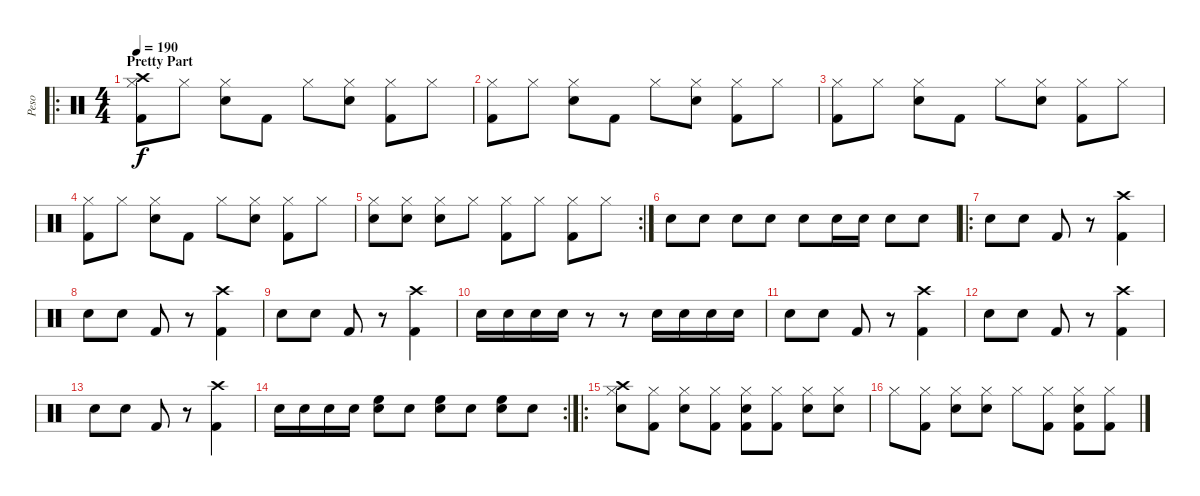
\track ("Peso" "Peso") {instrument percussion}
\staff {score}
\articulation defaults
\ro
\ts (4 4)
\section ("" "Pretty Part")
\tempo 190
\clef neutral
\ks c
("Crash high (hit)" "Hi-Hat (closed)" "Kick (hit) 2").8{dy f} "Hi-Hat (closed)".8 ("Hi-Hat (closed)" "Snare (hit) 2").8 "Kick (hit) 2".8 "Hi-Hat (closed)".8 ("Hi-Hat (closed)" "Snare (hit) 2").8 ("Hi-Hat (closed)" "Kick (hit) 2").8 "Hi-Hat (closed)".8 |
("Hi-Hat (closed)" "Kick (hit) 2").8 "Hi-Hat (closed)".8 ("Hi-Hat (closed)" "Snare (hit) 2").8 "Kick (hit) 2".8 "Hi-Hat (closed)".8 ("Hi-Hat (closed)" "Snare (hit) 2").8 ("Hi-Hat (closed)" "Kick (hit) 2").8 "Hi-Hat (closed)".8 |
("Hi-Hat (closed)" "Kick (hit) 2").8 "Hi-Hat (closed)".8 ("Hi-Hat (closed)" "Snare (hit) 2").8 "Kick (hit) 2".8 "Hi-Hat (closed)".8 ("Hi-Hat (closed)" "Snare (hit) 2").8 ("Hi-Hat (closed)" "Kick (hit) 2").8 "Hi-Hat (closed)".8 |
("Hi-Hat (closed)" "Kick (hit) 2").8 "Hi-Hat (closed)".8 ("Hi-Hat (closed)" "Snare (hit) 2").8 "Kick (hit) 2".8 "Hi-Hat (closed)".8 ("Hi-Hat (closed)" "Snare (hit) 2").8 ("Hi-Hat (closed)" "Kick (hit) 2").8 "Hi-Hat (closed)".8 |
\rc 2
("Hi-Hat (closed)" "Snare (hit) 2").8 ("Hi-Hat (closed)" "Snare (hit) 2").8 ("Hi-Hat (closed)" "Snare (hit) 2").8 "Hi-Hat (closed)".8 ("Hi-Hat (closed)" "Kick (hit) 2").8 "Hi-Hat (closed)".8 ("Hi-Hat (closed)" "Kick (hit) 2").8 "Hi-Hat (closed)".8 |
"Snare (hit) 2".8 "Snare (hit) 2".8 "Snare (hit) 2".8 "Snare (hit) 2".8 "Snare (hit) 2".8 "Snare (hit) 2".16 "Snare (hit) 2".16 "Snare (hit) 2".8 "Snare (hit) 2".8 |
\ro "Snare (hit) 2".8 "Snare (hit) 2".8 "Kick (hit) 2".8
r.8 ("Crash high (hit)" "Kick (hit) 2").4 |
"Snare (hit) 2".8 "Snare (hit) 2".8 "Kick (hit) 2".8 r.8 ("Crash high (hit)" "Kick (hit) 2").4 |
"Snare (hit) 2".8 "Snare (hit) 2".8 "Kick (hit) 2".8 r.8 ("Crash high (hit)" "Kick (hit) 2").4 |
"Snare (hit) 2".16 "Snare (hit) 2".16 "Snare (hit) 2".16 "Snare (hit) 2".16 r.8 r.8 "Snare (hit) 2".16 "Snare (hit) 2".16 "Snare (hit) 2".16 "Snare (hit) 2".16 |
"Snare (hit) 2".8 "Snare (hit) 2".8 "Kick (hit) 2".8 r.8 ("Crash high (hit)" "Kick (hit) 2").4 |
"Snare (hit) 2".8 "Snare (hit) 2".8 "Kick (hit) 2".8 r.8 ("Crash high (hit)" "Kick (hit) 2").4 |
"Snare (hit) 2".8 "Snare (hit) 2".8 "Kick (hit) 2".8 r.8 ("Crash high (hit)" "Kick (hit) 2").4 |
\rc 2 "Snare (hit) 2".16 "Snare (hit) 2".16 "Snare (hit) 2".16 "Snare (hit) 2".16
("Snare (hit) 2" "High Floor Tom (hit)").8 "Snare (hit) 2".8 ("Snare (hit) 2" "High Floor Tom (hit)").8 "Snare (hit) 2".8 ("Snare (hit) 2" "High Floor Tom (hit)").8 "Snare (hit) 2".8 |
\ro
("Crash high (hit)" "Hi-Hat (closed)" "Snare (hit) 2").8 ("Hi-Hat (closed)" "Kick (hit) 2").8 ("Hi-Hat (closed)" "Snare (hit) 2").8 ("Hi-Hat (closed)" "Kick (hit) 2").8 ("Hi-Hat (closed)" "Snare (hit) 2" "Kick (hit) 2").8 ("Hi-Hat (closed)" "Kick (hit) 2").8 ("Hi-Hat (closed)" "Snare (hit) 2").8 ("Hi-Hat (closed)" "Snare (hit) 2").8 |
"Hi-Hat (closed)".8 ("Hi-Hat (closed)" "Kick (hit) 2").8 ("Hi-Hat (closed)" "Snare (hit) 2").8 ("Hi-Hat (closed)" "Snare (hit) 2").8 "Hi-Hat (closed)".8 ("Hi-Hat (closed)" "Kick (hit) 2").8 ("Hi-Hat (closed)" "Snare (hit) 2" "Kick (hit) 2").8 ("Hi-Hat (closed)" "Kick (hit) 2").8
